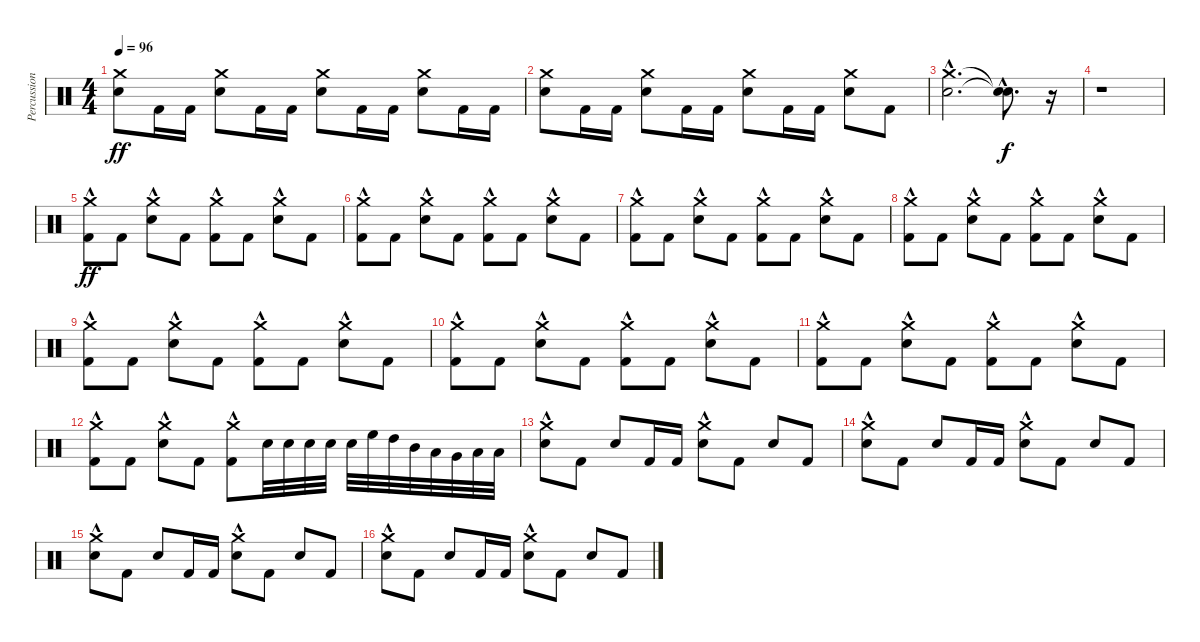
\track ("Percussion 1" "Percussion") {instrument percussion}
\staff {score}
\articulation defaults
\ts (4 4)
\tempo 96
\clef neutral
\ks c
("Electric Snare (hit)" "Crash medium (hit)").8{dy ff} "Kick (hit) 2".16 "Kick (hit) 2".16 ("Electric Snare (hit)" "Crash medium (hit)").8 "Kick (hit) 2".16 "Kick (hit) 2".16 ("Electric Snare (hit)" "Crash medium (hit)").8 "Kick (hit) 2".16 "Kick (hit) 2".16 ("Electric Snare (hit)" "Crash medium (hit)").8 "Kick (hit) 2".16 "Kick (hit) 2".16 |
("Electric Snare (hit)" "Crash medium (hit)").8 "Kick (hit) 2".16 "Kick (hit) 2".16 ("Electric Snare (hit)" "Crash medium (hit)").8 "Kick (hit) 2".16 "Kick (hit) 2".16 ("Electric Snare (hit)" "Crash medium (hit)").8 "Kick (hit) 2".16 "Kick (hit) 2".16 ("Electric Snare (hit)" "Crash medium (hit)").8 "Kick (hit) 2".8 |
("Snare (hit) 2"{hac} "Crash medium (hit)"{hac}).2{d} ("Snare (hit)"{hac t} "Snare (hit)"{hac t}).8{d dy f} r.16 |
r.1 |
("Kick (hit) 2" "Crash medium (hit)"{hac}).8{dy ff} "Kick (hit) 2".8 ("Electric Snare (hit)" "Crash medium (hit)"{hac}).8 "Kick (hit) 2".8 ("Kick (hit) 2" "Crash medium (hit)"{hac}).8 "Kick (hit) 2".8 ("Electric Snare (hit)" "Crash medium (hit)"{hac}).8 "Kick (hit) 2".8 |
("Kick (hit) 2" "Crash medium (hit)"{hac}).8 "Kick (hit) 2".8 ("Electric Snare (hit)" "Crash medium (hit)"{hac}).8 "Kick (hit) 2".8 ("Kick (hit) 2" "Crash medium (hit)"{hac}).8 "Kick (hit) 2".8 ("Electric Snare (hit)" "Crash medium (hit)"{hac}).8 "Kick (hit) 2".8 |
("Kick (hit) 2" "Crash medium (hit)"{hac}).8 "Kick (hit) 2".8 ("Electric Snare (hit)" "Crash medium (hit)"{hac}).8 "Kick (hit) 2".8 ("Kick (hit) 2" "Crash medium (hit)"{hac}).8 "Kick (hit) 2".8 ("Electric Snare (hit)" "Crash medium (hit)"{hac}).8 "Kick (hit) 2".8 |
("Kick (hit) 2" "Crash medium (hit)"{hac}).8 "Kick (hit) 2".8 ("Electric Snare (hit)" "Crash medium (hit)"{hac}).8 "Kick (hit) 2".8 ("Kick (hit) 2" "Crash medium (hit)"{hac}).8 "Kick (hit) 2".8 ("Electric Snare (hit)" "Crash medium (hit)"{hac}).8 "Kick (hit) 2".8 |
("Kick (hit) 2" "Crash medium (hit)"{hac}).8 "Kick (hit) 2".8 ("Electric Snare (hit)" "Crash medium (hit)"{hac}).8 "Kick (hit) 2".8 ("Kick (hit) 2" "Crash medium (hit)"{hac}).8 "Kick (hit) 2".8 ("Electric Snare (hit)" "Crash medium (hit)"{hac}).8 "Kick (hit) 2".8 |
("Kick (hit) 2" "Crash medium (hit)"{hac}).8 "Kick (hit) 2".8 ("Electric Snare (hit)" "Crash medium (hit)"{hac}).8 "Kick (hit) 2".8 ("Kick (hit) 2" "Crash medium (hit)"{hac}).8 "Kick (hit) 2".8 ("Electric Snare (hit)" "Crash medium (hit)"{hac}).8 "Kick (hit) 2".8 |
("Kick (hit) 2" "Crash medium (hit)"{hac}).8 "Kick (hit) 2".8 ("Electric Snare (hit)" "Crash medium (hit)"{hac}).8 "Kick (hit) 2".8 ("Kick (hit) 2" "Crash medium (hit)"{hac}).8 "Kick (hit) 2".8 ("Electric Snare (hit)" "Crash medium (hit)"{hac}).8 "Kick (hit) 2".8 |
("Kick (hit) 2" "Crash medium (hit)"{hac}).8 "Kick (hit) 2".8 ("Electric Snare (hit)" "Crash medium (hit)"{hac}).8 "Kick (hit) 2".8 ("Kick (hit) 2" "Crash medium (hit)"{hac}).8 "Electric Snare (hit)".32 "Electric Snare (hit)".32 "Electric Snare (hit)".32 "Electric Snare (hit)".32 "Electric Snare (hit)".32 "High Floor Tom (hit)".32 "High Tom (hit)".32 "Mid Tom (hit)".32 "Low Tom (hit)".32 "Very Low Tom (hit)".32 "Low Floor Tom (hit)".32 "Low Floor Tom (hit)".32 |
("Electric Snare (hit)" "Crash medium (hit)"{hac}).8 "Kick (hit) 2".8 "Electric Snare (hit)".8 "Kick (hit) 2".16 "Kick (hit) 2".16 ("Electric Snare (hit)" "Crash medium (hit)"{hac}).8 "Kick (hit) 2".8 "Electric Snare (hit)".8 "Kick (hit) 2".8 |
("Electric Snare (hit)" "Crash medium (hit)"{hac}).8 "Kick (hit) 2".8 "Electric Snare (hit)".8 "Kick (hit) 2".16 "Kick (hit) 2".16 ("Electric Snare (hit)" "Crash medium (hit)"{hac}).8 "Kick (hit) 2".8 "Electric Snare (hit)".8 "Kick (hit) 2".8 |
("Electric Snare (hit)" "Crash medium (hit)"{hac}).8 "Kick (hit) 2".8 "Electric Snare (hit)".8 "Kick (hit) 2".16 "Kick (hit) 2".16 ("Electric Snare (hit)" "Crash medium (hit)"{hac}).8 "Kick (hit) 2".8 "Electric Snare (hit)".8 "Kick (hit) 2".8 |
("Electric Snare (hit)" "Crash medium (hit)"{hac}).8 "Kick (hit) 2".8 "Electric Snare (hit)".8 "Kick (hit) 2".16 "Kick (hit) 2".16 ("Electric Snare (hit)" "Crash medium (hit)"{hac}).8 "Kick (hit) 2".8 "Electric Snare (hit)".8 "Kick (hit) 2".8
